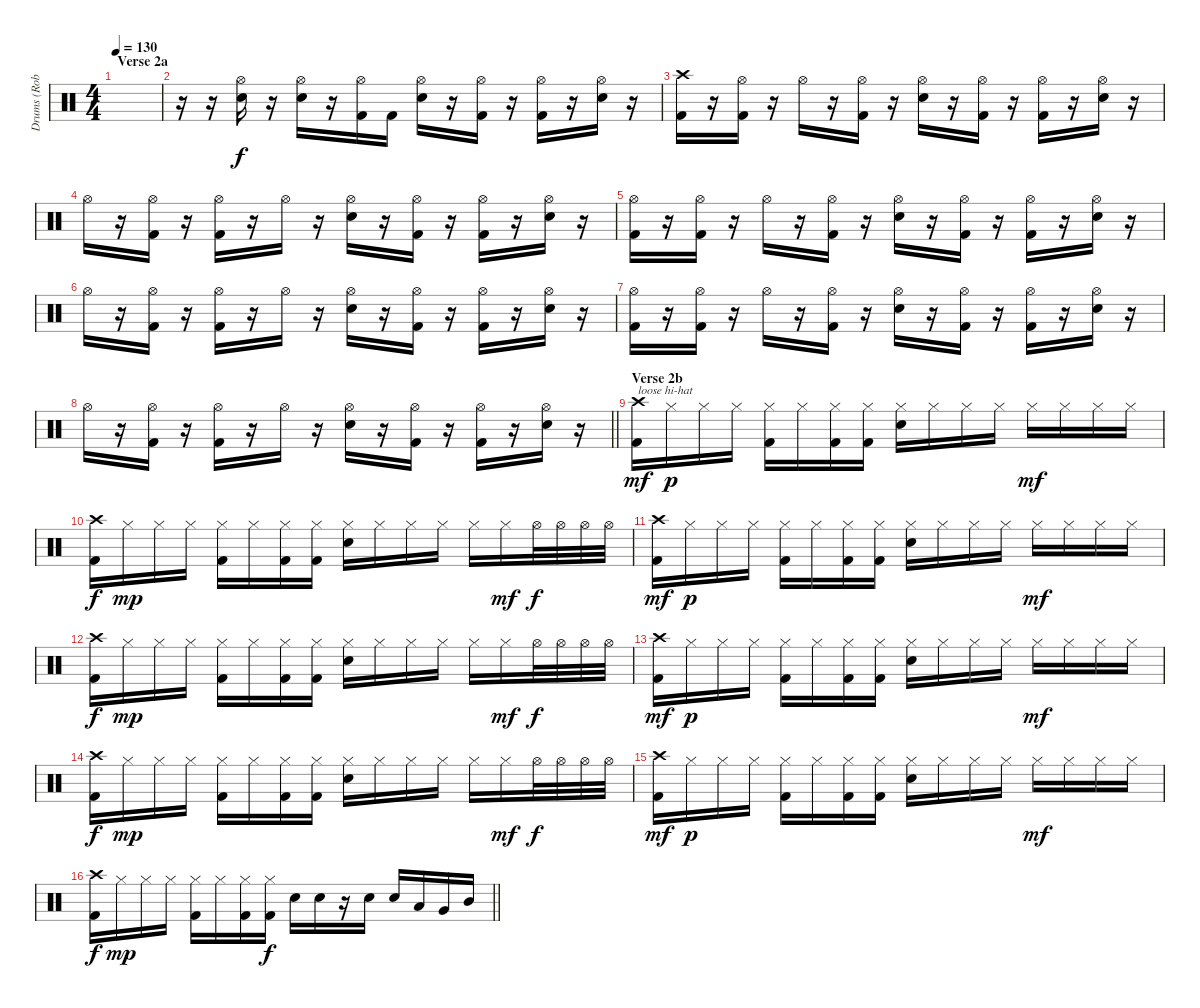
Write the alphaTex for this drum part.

\track ("Drums (Rob)" "Drums (Rob") {instrument percussion}
\staff {score}
\articulation defaults
\ts (4 4)
\section ("" "Verse 2a")
\tempo 130
\clef neutral
\ks c
|
r.16 r.16 ("Hi-Hat (open)" "Electric Snare (hit)").16 r.16 ("Hi-Hat (open)" "Electric Snare (hit)").16 r.16 ("Hi-Hat (open)" "Kick (hit) 2").16 "Kick (hit) 2".16 ("Hi-Hat (open)" "Electric Snare (hit)").16 r.16 ("Hi-Hat (open)" "Kick (hit) 2").16 r.16 ("Hi-Hat (open)" "Kick (hit) 2").16 r.16 ("Hi-Hat (open)" "Electric Snare (hit)").16 r.16 |
("Crash high (hit)" "Kick (hit) 2").16 r.16 ("Hi-Hat (open)" "Kick (hit) 2").16 r.16 "Hi-Hat (open)".16 r.16 ("Hi-Hat (open)" "Kick (hit) 2").16 r.16 ("Hi-Hat (open)" "Electric Snare (hit)").16 r.16 ("Hi-Hat (open)" "Kick (hit) 2").16 r.16 ("Hi-Hat (open)" "Kick (hit) 2").16 r.16 ("Hi-Hat (open)" "Electric Snare (hit)").16 r.16 |
"Hi-Hat (open)".16 r.16 ("Hi-Hat (open)" "Kick (hit) 2").16 r.16 ("Hi-Hat (open)" "Kick (hit) 2").16 r.16 "Hi-Hat (open)".16 r.16 ("Hi-Hat (open)" "Electric Snare (hit)").16 r.16 ("Hi-Hat (open)" "Kick (hit) 2").16 r.16 ("Hi-Hat (open)" "Kick (hit) 2").16 r.16 ("Hi-Hat (open)" "Electric Snare (hit)").16 r.16 |
("Hi-Hat (open)" "Kick (hit) 2").16 r.16 ("Hi-Hat (open)" "Kick (hit) 2").16 r.16 "Hi-Hat (open)".16 r.16 ("Hi-Hat (open)" "Kick (hit) 2").16 r.16 ("Hi-Hat (open)" "Electric Snare (hit)").16 r.16 ("Hi-Hat (open)" "Kick (hit) 2").16 r.16 ("Hi-Hat (open)" "Kick (hit) 2").16 r.16 ("Hi-Hat (open)" "Electric Snare (hit)").16 r.16 |
"Hi-Hat (open)".16 r.16 ("Hi-Hat (open)" "Kick (hit) 2").16 r.16 ("Hi-Hat (open)" "Kick (hit) 2").16 r.16 "Hi-Hat (open)".16 r.16 ("Hi-Hat (open)" "Electric Snare (hit)").16 r.16 ("Hi-Hat (open)" "Kick (hit) 2").16 r.16 ("Hi-Hat (open)" "Kick (hit) 2").16 r.16 ("Hi-Hat (open)" "Electric Snare (hit)").16 r.16 |
("Hi-Hat (open)" "Kick (hit) 2").16 r.16 ("Hi-Hat (open)" "Kick (hit) 2").16 r.16 "Hi-Hat (open)".16 r.16 ("Hi-Hat (open)" "Kick (hit) 2").16 r.16 ("Hi-Hat (open)" "Electric Snare (hit)").16 r.16 ("Hi-Hat (open)" "Kick (hit) 2").16 r.16 ("Hi-Hat (open)" "Kick (hit) 2").16 r.16 ("Hi-Hat (open)" "Electric Snare (hit)").16 r.16 |
\barLineRight lightlight "Hi-Hat (open)".16
r.16 ("Hi-Hat (open)" "Kick (hit) 2").16 r.16 ("Hi-Hat (open)" "Kick (hit) 2").16 r.16 "Hi-Hat (open)".16 r.16 ("Hi-Hat (open)" "Electric Snare (hit)").16 r.16 ("Hi-Hat (open)" "Kick (hit) 2").16 r.16 ("Hi-Hat (open)" "Kick (hit) 2").16 r.16 ("Hi-Hat (open)" "Electric Snare (hit)").16 r.16 |
\section ("" "Verse 2b")
("Crash high (hit)" "Kick (hit) 2").16{txt "loose hi-hat" dy mf} "Hi-Hat (closed)".16{dy p} "Hi-Hat (closed)".16 "Hi-Hat (closed)".16 ("Hi-Hat (closed)" "Kick (hit) 2").16 "Hi-Hat (closed)".16 ("Hi-Hat (closed)" "Kick (hit) 2").16 ("Hi-Hat (closed)" "Kick (hit) 2").16 ("Hi-Hat (closed)" "Electric Snare (hit)").16 "Hi-Hat (closed)".16 "Hi-Hat (closed)".16 "Hi-Hat (closed)".16 "Hi-Hat (closed)".16{dy mf} "Hi-Hat (closed)".16 "Hi-Hat (closed)".16 "Hi-Hat (closed)".16 |
("Crash high (hit)" "Kick (hit) 2").16{dy f} "Hi-Hat (closed)".16{dy mp} "Hi-Hat (closed)".16 "Hi-Hat (closed)".16 ("Hi-Hat (closed)" "Kick (hit) 2").16 "Hi-Hat (closed)".16 ("Hi-Hat (closed)" "Kick (hit) 2").16 ("Hi-Hat (closed)" "Kick (hit) 2").16 ("Hi-Hat (closed)" "Electric Snare (hit)").16 "Hi-Hat (closed)".16 "Hi-Hat (closed)".16 "Hi-Hat (closed)".16 "Hi-Hat (closed)".16 "Hi-Hat (closed)".16{dy mf} "Hi-Hat (open)".32{dy f} "Hi-Hat (open)".32 "Hi-Hat (open)".32 "Hi-Hat (open)".32 |
("Crash high (hit)" "Kick (hit) 2").16{dy mf} "Hi-Hat (closed)".16{dy p} "Hi-Hat (closed)".16 "Hi-Hat (closed)".16 ("Hi-Hat (closed)" "Kick (hit) 2").16 "Hi-Hat (closed)".16 ("Hi-Hat (closed)" "Kick (hit) 2").16 ("Hi-Hat (closed)" "Kick (hit) 2").16 ("Hi-Hat (closed)" "Electric Snare (hit)").16 "Hi-Hat (closed)".16 "Hi-Hat (closed)".16 "Hi-Hat (closed)".16 "Hi-Hat (closed)".16{dy mf} "Hi-Hat (closed)".16 "Hi-Hat (closed)".16 "Hi-Hat (closed)".16 |
("Crash high (hit)" "Kick (hit) 2").16{dy f} "Hi-Hat (closed)".16{dy mp} "Hi-Hat (closed)".16 "Hi-Hat (closed)".16 ("Hi-Hat (closed)" "Kick (hit) 2").16 "Hi-Hat (closed)".16 ("Hi-Hat (closed)" "Kick (hit) 2").16 ("Hi-Hat (closed)" "Kick (hit) 2").16 ("Hi-Hat (closed)" "Electric Snare (hit)").16 "Hi-Hat (closed)".16 "Hi-Hat (closed)".16 "Hi-Hat (closed)".16 "Hi-Hat (closed)".16 "Hi-Hat (closed)".16{dy mf} "Hi-Hat (open)".32{dy f} "Hi-Hat (open)".32 "Hi-Hat (open)".32 "Hi-Hat (open)".32 |
("Crash high (hit)" "Kick (hit) 2").16{dy mf} "Hi-Hat (closed)".16{dy p} "Hi-Hat (closed)".16 "Hi-Hat (closed)".16 ("Hi-Hat (closed)" "Kick (hit) 2").16 "Hi-Hat (closed)".16 ("Hi-Hat (closed)" "Kick (hit) 2").16 ("Hi-Hat (closed)" "Kick (hit) 2").16 ("Hi-Hat (closed)" "Electric Snare (hit)").16 "Hi-Hat (closed)".16 "Hi-Hat (closed)".16 "Hi-Hat (closed)".16 "Hi-Hat (closed)".16{dy mf} "Hi-Hat (closed)".16 "Hi-Hat (closed)".16 "Hi-Hat (closed)".16 |
("Crash high (hit)" "Kick (hit) 2").16{dy f} "Hi-Hat (closed)".16{dy mp} "Hi-Hat (closed)".16 "Hi-Hat (closed)".16 ("Hi-Hat (closed)" "Kick (hit) 2").16 "Hi-Hat (closed)".16 ("Hi-Hat (closed)" "Kick (hit) 2").16 ("Hi-Hat (closed)" "Kick (hit) 2").16 ("Hi-Hat (closed)" "Electric Snare (hit)").16 "Hi-Hat (closed)".16 "Hi-Hat (closed)".16 "Hi-Hat (closed)".16 "Hi-Hat (closed)".16 "Hi-Hat (closed)".16{dy mf} "Hi-Hat (open)".32{dy f} "Hi-Hat (open)".32 "Hi-Hat (open)".32 "Hi-Hat (open)".32 |
("Crash high (hit)" "Kick (hit) 2").16{dy mf} "Hi-Hat (closed)".16{dy p} "Hi-Hat (closed)".16 "Hi-Hat (closed)".16 ("Hi-Hat (closed)" "Kick (hit) 2").16 "Hi-Hat (closed)".16 ("Hi-Hat (closed)" "Kick (hit) 2").16 ("Hi-Hat (closed)" "Kick (hit) 2").16 ("Hi-Hat (closed)" "Electric Snare (hit)").16 "Hi-Hat (closed)".16 "Hi-Hat (closed)".16 "Hi-Hat (closed)".16 "Hi-Hat (closed)".16{dy mf} "Hi-Hat (closed)".16 "Hi-Hat (closed)".16 "Hi-Hat (closed)".16 |
\barLineRight lightlight
("Crash high (hit)" "Kick (hit) 2").16{dy f} "Hi-Hat (closed)".16{dy mp} "Hi-Hat (closed)".16 "Hi-Hat (closed)".16 ("Hi-Hat (closed)" "Kick (hit) 2").16 "Hi-Hat (closed)".16 ("Hi-Hat (closed)" "Kick (hit) 2").16 ("Hi-Hat (closed)" "Kick (hit) 2").16{dy f} "Electric Snare (hit)".16 "Electric Snare (hit)".16 r.16 "Electric Snare (hit)".16 "Electric Snare (hit)".16 "Low Tom (hit)".16 "Very Low Tom (hit)".16 "Mid Tom (hit)".16
